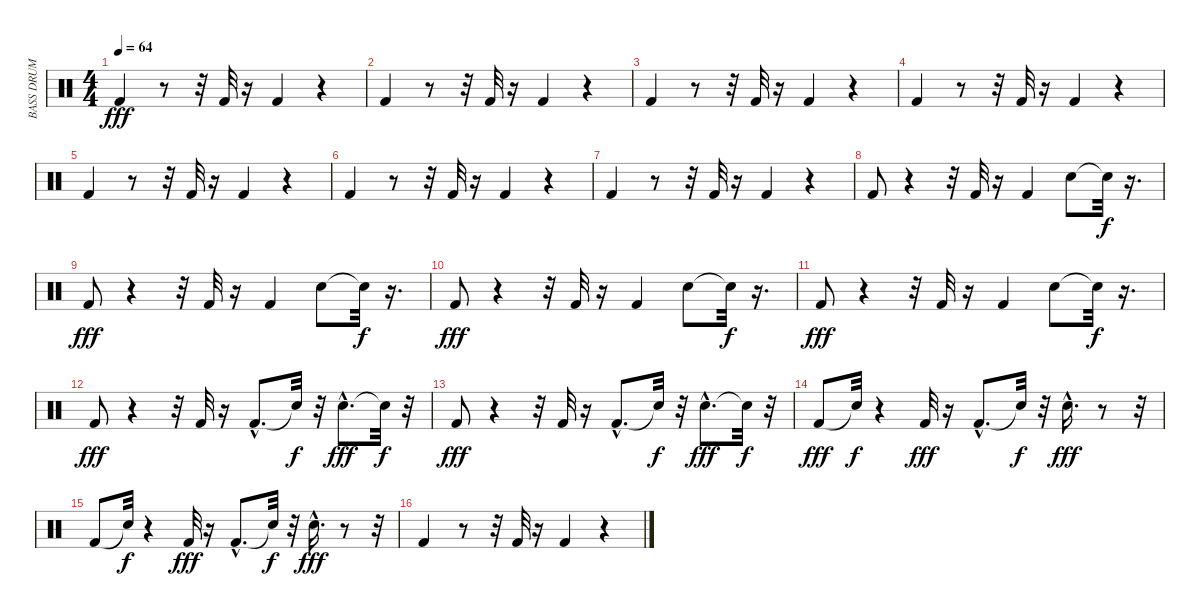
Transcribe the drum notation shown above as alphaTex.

\track ("BASS DRUM" "BASS DRUM") {instrument percussion}
\staff {score}
\articulation defaults
\ts (4 4)
\tempo 64
\clef neutral
\ks c "Kick (hit) 2".4{dy fff}
r.8 r.32 "Kick (hit) 2".32 r.16 "Kick (hit) 2".4 r.4 |
"Kick (hit) 2".4 r.8 r.32 "Kick (hit) 2".32 r.16 "Kick (hit) 2".4 r.4 |
"Kick (hit) 2".4 r.8 r.32 "Kick (hit) 2".32 r.16 "Kick (hit) 2".4 r.4 |
"Kick (hit) 2".4 r.8 r.32 "Kick (hit) 2".32 r.16 "Kick (hit) 2".4 r.4 |
"Kick (hit) 2".4 r.8 r.32 "Kick (hit) 2".32 r.16 "Kick (hit) 2".4 r.4 |
"Kick (hit) 2".4 r.8 r.32 "Kick (hit) 2".32 r.16 "Kick (hit) 2".4 r.4 |
"Kick (hit) 2".4 r.8 r.32 "Kick (hit) 2".32 r.16 "Kick (hit) 2".4 r.4 |
"Kick (hit) 2".8 r.4 r.32 "Kick (hit) 2".32 r.16 "Kick (hit) 2".4 "Snare (hit) 2".8 "Snare (hit)"{t}.32{dy f} r.16{d} |
"Kick (hit) 2".8{dy fff} r.4 r.32 "Kick (hit) 2".32 r.16 "Kick (hit) 2".4 "Snare (hit) 2".8 "Snare (hit)"{t}.32{dy f} r.16{d} |
"Kick (hit) 2".8{dy fff} r.4 r.32 "Kick (hit) 2".32 r.16 "Kick (hit) 2".4 "Snare (hit) 2".8 "Snare (hit)"{t}.32{dy f} r.16{d} |
"Kick (hit) 2".8{dy fff} r.4 r.32 "Kick (hit) 2".32 r.16 "Kick (hit) 2".4 "Snare (hit) 2".8 "Snare (hit)"{t}.32{dy f} r.16{d} |
"Kick (hit) 2".8{dy fff} r.4 r.32 "Kick (hit) 2".32 r.16 "Kick (hit) 2"{hac}.8{d} "Snare (hit)"{t}.32{dy f} r.32 "Snare (hit) 2"{hac}.8{d dy fff} "Snare (hit)"{t}.32{dy f} r.32 |
"Kick (hit) 2".8{dy fff} r.4 r.32 "Kick (hit) 2".32 r.16 "Kick (hit) 2"{hac}.8{d} "Snare (hit)"{t}.32{dy f} r.32 "Snare (hit) 2"{hac}.8{d dy fff} "Snare (hit)"{t}.32{dy f} r.32 |
"Kick (hit) 2".8{dy fff} "Snare (hit)"{t}.32{dy f} r.4 "Kick (hit) 2".32{dy fff} r.16 "Kick (hit) 2"{hac}.8{d} "Snare (hit)"{t}.32{dy f} r.32 "Snare (hit) 2"{hac}.16{d dy fff} r.8 r.32 |
"Kick (hit) 2".8 "Snare (hit)"{t}.32{dy f} r.4 "Kick (hit) 2".32{dy fff} r.16 "Kick (hit) 2"{hac}.8{d} "Snare (hit)"{t}.32{dy f} r.32 "Snare (hit) 2"{hac}.16{d dy fff} r.8 r.32 |
"Kick (hit) 2".4 r.8 r.32 "Kick (hit) 2".32 r.16 "Kick (hit) 2".4 r.4
